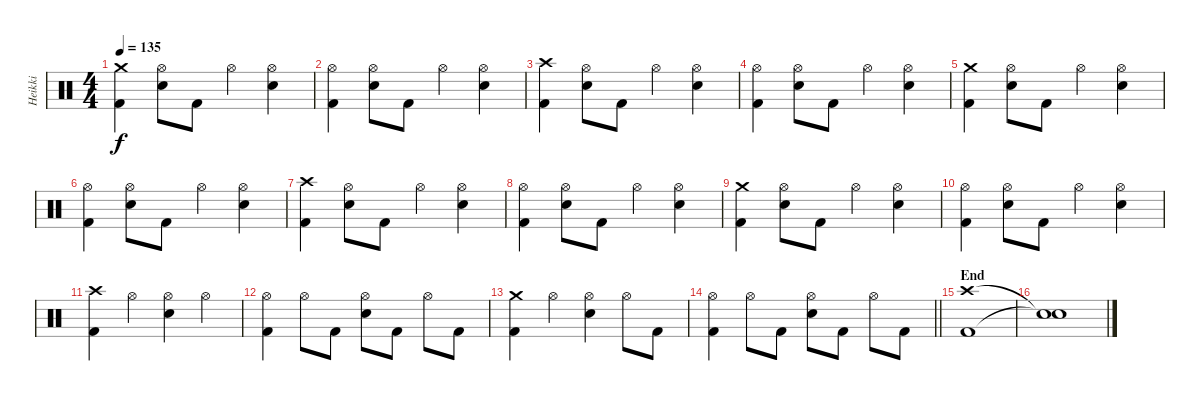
\track ("Heikki" "Heikki") {instrument percussion}
\staff {score}
\articulation defaults
\ts (4 4)
\tempo 135
\clef neutral
\ks c
("Crash medium (hit)" "Kick (hit) 2").4{dy f} ("Hi-Hat (open)" "Electric Snare (hit)").8 "Kick (hit) 2".8 "Hi-Hat (open)".4 ("Hi-Hat (open)" "Electric Snare (hit)").4 |
("Hi-Hat (open)" "Kick (hit) 2").4 ("Hi-Hat (open)" "Electric Snare (hit)").8 "Kick (hit) 2".8 "Hi-Hat (open)".4 ("Hi-Hat (open)" "Electric Snare (hit)").4 |
("Crash high (hit)" "Kick (hit) 2").4 ("Hi-Hat (open)" "Electric Snare (hit)").8 "Kick (hit) 2".8 "Hi-Hat (open)".4 ("Hi-Hat (open)" "Electric Snare (hit)").4 |
("Hi-Hat (open)" "Kick (hit) 2").4 ("Hi-Hat (open)" "Electric Snare (hit)").8 "Kick (hit) 2".8 "Hi-Hat (open)".4 ("Hi-Hat (open)" "Electric Snare (hit)").4 |
("Crash medium (hit)" "Kick (hit) 2").4 ("Hi-Hat (open)" "Electric Snare (hit)").8 "Kick (hit) 2".8 "Hi-Hat (open)".4 ("Hi-Hat (open)" "Electric Snare (hit)").4 |
("Hi-Hat (open)" "Kick (hit) 2").4 ("Hi-Hat (open)" "Electric Snare (hit)").8 "Kick (hit) 2".8 "Hi-Hat (open)".4 ("Hi-Hat (open)" "Electric Snare (hit)").4 |
("Crash high (hit)" "Kick (hit) 2").4 ("Hi-Hat (open)" "Electric Snare (hit)").8 "Kick (hit) 2".8 "Hi-Hat (open)".4 ("Hi-Hat (open)" "Electric Snare (hit)").4 |
("Hi-Hat (open)" "Kick (hit) 2").4 ("Hi-Hat (open)" "Electric Snare (hit)").8 "Kick (hit) 2".8 "Hi-Hat (open)".4 ("Hi-Hat (open)" "Electric Snare (hit)").4 |
("Crash medium (hit)" "Kick (hit) 2").4 ("Hi-Hat (open)" "Electric Snare (hit)").8 "Kick (hit) 2".8 "Hi-Hat (open)".4 ("Hi-Hat (open)" "Electric Snare (hit)").4 |
("Hi-Hat (open)" "Kick (hit) 2").4 ("Hi-Hat (open)" "Electric Snare (hit)").8 "Kick (hit) 2".8 "Hi-Hat (open)".4 ("Hi-Hat (open)" "Electric Snare (hit)").4 |
("Crash high (hit)" "Kick (hit) 2").4 "Hi-Hat (open)".4 ("Hi-Hat (open)" "Electric Snare (hit)").4 "Hi-Hat (open)".4 |
("Hi-Hat (open)" "Kick (hit) 2").4 "Hi-Hat (open)".8 "Kick (hit) 2".8 ("Hi-Hat (open)" "Electric Snare (hit)").8 "Kick (hit) 2".8 "Hi-Hat (open)".8 "Kick (hit) 2".8 |
("Crash medium (hit)" "Kick (hit) 2").4 "Hi-Hat (open)".4 ("Hi-Hat (open)" "Electric Snare (hit)").4 "Hi-Hat (open)".8 "Kick (hit) 2".8 |
\barLineRight lightlight
("Hi-Hat (open)" "Kick (hit) 2").4 "Hi-Hat (open)".8 "Kick (hit) 2".8 ("Hi-Hat (open)" "Electric Snare (hit)").8 "Kick (hit) 2".8 "Hi-Hat (open)".8 "Kick (hit) 2".8 |
\section ("" "End")
("Crash high (hit)" "Kick (hit) 2").1 |
("Snare (hit)"{t} "Snare (hit)"{t}).1
